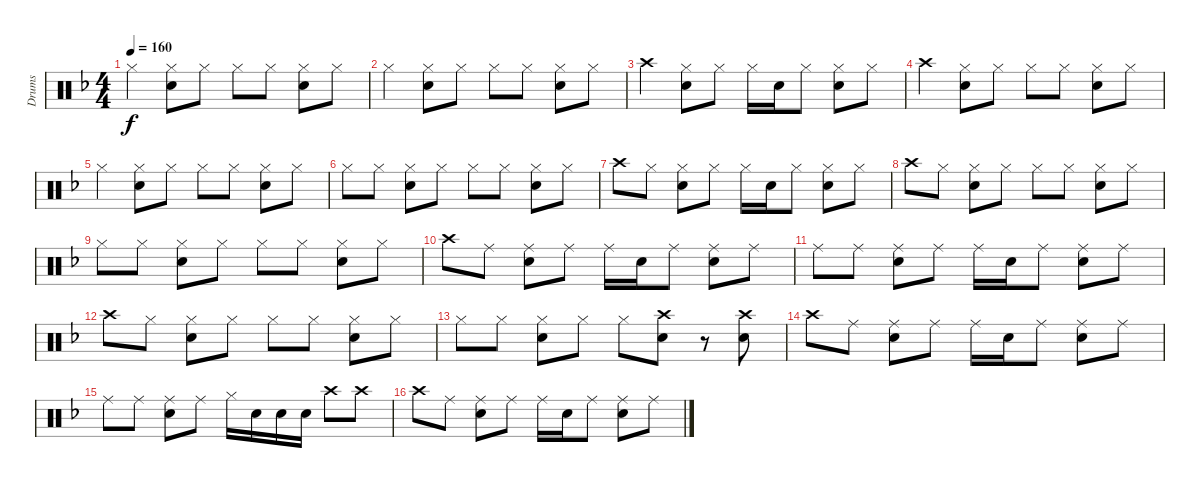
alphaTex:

\track ("Drums" "Drums") {instrument percussion}
\staff {score}
\articulation defaults
\ts (4 4)
\tempo 160
\clef neutral
\ks f "Hi-Hat (closed)".4{dy f}
("Hi-Hat (closed)" "Snare (hit) 2").8 "Hi-Hat (closed)".8 "Hi-Hat (closed)".8 "Hi-Hat (closed)".8 ("Hi-Hat (closed)" "Snare (hit) 2").8 "Hi-Hat (closed)".8 |
"Hi-Hat (closed)".4 ("Hi-Hat (closed)" "Snare (hit) 2").8 "Hi-Hat (closed)".8 "Hi-Hat (closed)".8 "Hi-Hat (closed)".8 ("Hi-Hat (closed)" "Snare (hit) 2").8 "Hi-Hat (closed)".8 |
"Crash high (hit)".4 ("Hi-Hat (closed)" "Snare (hit) 2").8 "Hi-Hat (closed)".8 "Hi-Hat (closed)".16 "Snare (hit) 2".16 "Hi-Hat (closed)".8 ("Hi-Hat (closed)" "Snare (hit) 2").8 "Hi-Hat (closed)".8 |
"Crash high (hit)".4 ("Hi-Hat (closed)" "Snare (hit) 2").8 "Hi-Hat (closed)".8 "Hi-Hat (closed)".8 "Hi-Hat (closed)".8 ("Hi-Hat (closed)" "Snare (hit) 2").8 "Hi-Hat (closed)".8 |
"Hi-Hat (closed)".4 ("Hi-Hat (closed)" "Snare (hit) 2").8 "Hi-Hat (closed)".8 "Hi-Hat (closed)".8 "Hi-Hat (closed)".8 ("Hi-Hat (closed)" "Snare (hit) 2").8 "Hi-Hat (closed)".8 |
"Hi-Hat (closed)".8 "Hi-Hat (closed)".8 ("Hi-Hat (closed)" "Snare (hit) 2").8 "Hi-Hat (closed)".8 "Hi-Hat (closed)".8 "Hi-Hat (closed)".8 ("Hi-Hat (closed)" "Snare (hit) 2").8 "Hi-Hat (closed)".8 |
"Crash high (hit)".8 "Hi-Hat (closed)".8 ("Hi-Hat (closed)" "Snare (hit) 2").8 "Hi-Hat (closed)".8 "Hi-Hat (closed)".16 "Snare (hit) 2".16 "Hi-Hat (closed)".8 ("Hi-Hat (closed)" "Snare (hit) 2").8 "Hi-Hat (closed)".8 |
"Crash high (hit)".8 "Hi-Hat (closed)".8 ("Hi-Hat (closed)" "Snare (hit) 2").8 "Hi-Hat (closed)".8 "Hi-Hat (closed)".8 "Hi-Hat (closed)".8 ("Hi-Hat (closed)" "Snare (hit) 2").8 "Hi-Hat (closed)".8 |
"Hi-Hat (closed)".8 "Hi-Hat (closed)".8 ("Hi-Hat (closed)" "Snare (hit) 2").8 "Hi-Hat (closed)".8 "Hi-Hat (closed)".8 "Hi-Hat (closed)".8 ("Hi-Hat (closed)" "Snare (hit) 2").8 "Hi-Hat (closed)".8 |
"Crash high (hit)".8 "Ride (middle)".8 ("Ride (middle)" "Snare (hit) 2").8 "Ride (middle)".8 "Ride (middle)".16 "Snare (hit) 2".16 "Ride (middle)".8 ("Ride (middle)" "Snare (hit) 2").8 "Ride (middle)".8 |
"Ride (middle)".8 "Ride (middle)".8 ("Ride (middle)" "Snare (hit) 2").8 "Ride (middle)".8 "Ride (middle)".16 "Snare (hit) 2".16 "Ride (middle)".8 ("Ride (middle)" "Snare (hit) 2").8 "Ride (middle)".8 |
"Crash high (hit)".8 "Hi-Hat (closed)".8 ("Hi-Hat (closed)" "Snare (hit) 2").8 "Hi-Hat (closed)".8 "Hi-Hat (closed)".8 "Hi-Hat (closed)".8 ("Hi-Hat (closed)" "Snare (hit) 2").8 "Hi-Hat (closed)".8 |
"Hi-Hat (closed)".8 "Hi-Hat (closed)".8 ("Hi-Hat (closed)" "Snare (hit) 2").8 "Hi-Hat (closed)".8 "Hi-Hat (closed)".8 ("Crash high (hit)" "Snare (hit) 2").8 r.8 ("Crash high (hit)" "Snare (hit) 2").8 |
"Crash high (hit)".8 "Ride (middle)".8 ("Ride (middle)" "Snare (hit) 2").8 "Ride (middle)".8 "Ride (middle)".16 "Snare (hit) 2".16 "Ride (middle)".8 ("Ride (middle)" "Snare (hit) 2").8 "Ride (middle)".8 |
"Ride (middle)".8 "Ride (middle)".8 ("Ride (middle)" "Snare (hit) 2").8 "Ride (middle)".8 "Hi-Hat (closed)".16 "Snare (hit) 2".16 "Snare (hit) 2".16 "Snare (hit) 2".16 "Crash high (hit)".8 "Crash high (hit)".8 |
"Crash high (hit)".8 "Ride (middle)".8 ("Ride (middle)" "Snare (hit) 2").8 "Ride (middle)".8 "Ride (middle)".16 "Snare (hit) 2".16 "Ride (middle)".8 ("Ride (middle)" "Snare (hit) 2").8 "Ride (middle)".8
